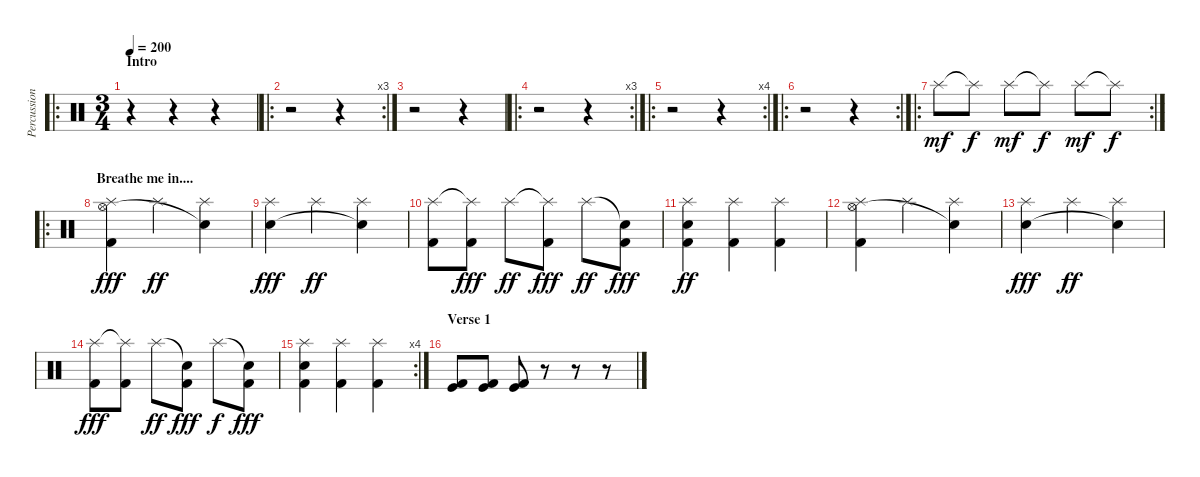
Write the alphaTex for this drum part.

\track ("Percussion" "Percussion") {instrument percussion}
\staff {score}
\articulation defaults
\ro
\ts (3 4)
\section ("" "Intro")
\tempo 200
\clef neutral
\ks c
r.4{dy mf} r.4 r.4 |
\ro
\rc 3
r.2 r.4 |
r.2 r.4 |
\ro
\rc 3
r.2 r.4 |
\ro
\rc 4
r.2 r.4 |
\ro
\rc 2
r.2 r.4 |
\ro
\rc 2 "Splash (hit)".8 "Splash (hit)"{t}.8{dy f} "Splash (hit)".8{dy mf} "Splash (hit)"{t}.8{dy f} "Splash (hit)".8{dy mf} "Splash (hit)"{t}.8{dy f}
|
\ro
\section ("" "Breathe me in....")
("Splash (hit)" "Hi-Hat (open)" "Kick (hit) 2").4{dy fff} "Splash (hit)".4{dy ff} ("Splash (hit)" "Snare (hit)"{t}).4 |
("Splash (hit)" "Electric Snare (hit)").4{dy fff} "Splash (hit)".4{dy ff} ("Splash (hit)" "Snare (hit)"{t}).4 |
("Splash (hit)" "Kick (hit) 2").8 ("Splash (hit)"{t} "Kick (hit) 2").8{dy fff} "Splash (hit)".8{dy ff} ("Splash (hit)"{t} "Kick (hit) 2").8{dy fff} "Splash (hit)".8{dy ff} ("Snare (hit)"{t} "Kick (hit) 2").8{dy fff} |
("Splash (hit)" "Electric Snare (hit)" "Kick (hit) 2").4{dy ff} ("Splash (hit)" "Kick (hit) 2").4 ("Splash (hit)" "Kick (hit) 2").4 |
("Splash (hit)" "Hi-Hat (open)" "Kick (hit) 2").4 "Splash (hit)".4 ("Splash (hit)" "Snare (hit)"{t}).4 |
("Splash (hit)" "Electric Snare (hit)").4{dy fff} "Splash (hit)".4{dy ff} ("Splash (hit)" "Snare (hit)"{t}).4 |
("Splash (hit)" "Kick (hit) 2").8{dy fff} ("Splash (hit)"{t} "Kick (hit) 2").8 "Splash (hit)".8{dy ff} ("Snare (hit)"{t} "Kick (hit) 2").8{dy fff} "Splash (hit)".8{dy f} ("Snare (hit)"{t} "Kick (hit) 2").8{dy fff} |
\rc 4
("Splash (hit)" "Electric Snare (hit)" "Kick (hit) 2").4 ("Splash (hit)" "Kick (hit) 2").4 ("Splash (hit)" "Kick (hit) 2").4 |
\section ("" "Verse 1")
("Kick (hit)" "Kick (hit) 2").8 ("Kick (hit)" "Kick (hit) 2").8 ("Kick (hit)" "Kick (hit) 2").8 r.8 r.8 r.8
